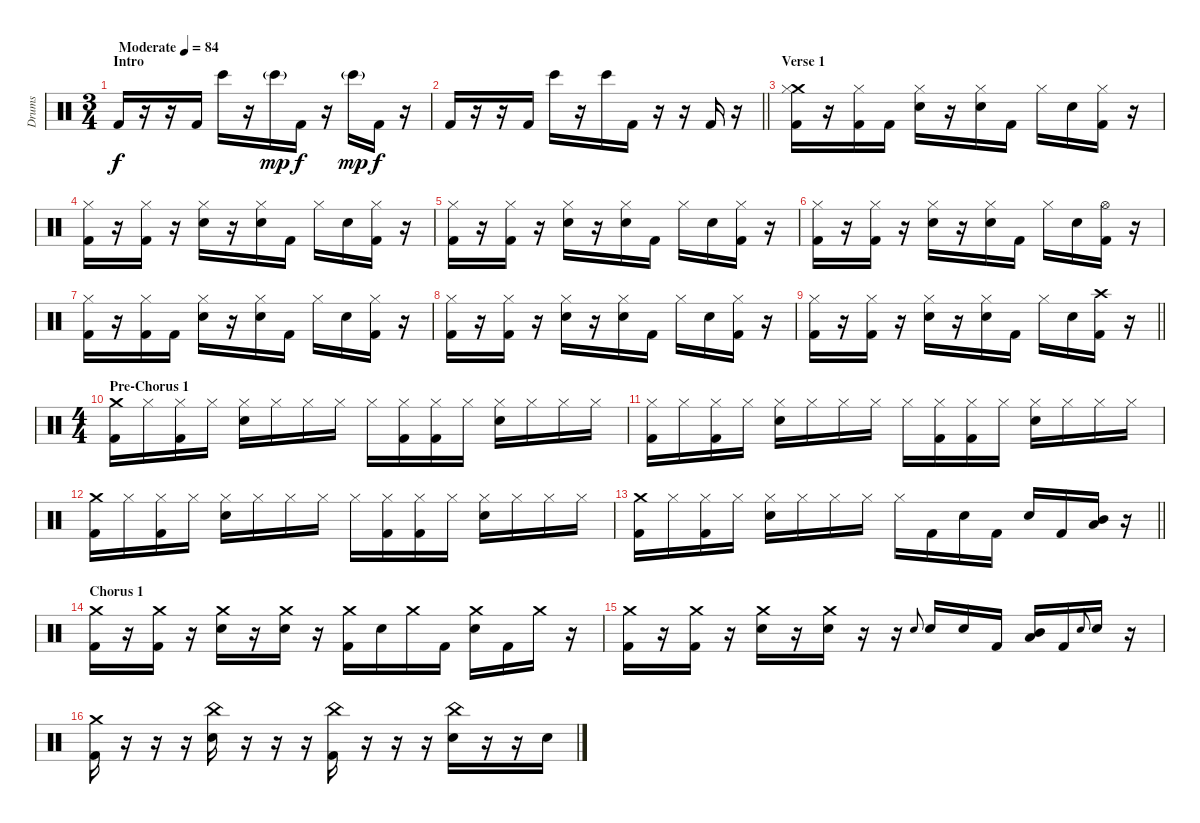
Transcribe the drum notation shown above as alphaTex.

\track ("Drums" "Drums") {instrument percussion}
\staff {score}
\articulation defaults
\ts (3 4)
\section ("" "Intro")
\tempo (84 "Moderate")
\clef neutral
\ks c "Kick (hit) 2".16{dy f}
r.16 r.16 "Kick (hit) 2".16 "Bongo High (hit)".16 r.16 "Bongo High (hit)"{g}.16{dy mp} "Kick (hit) 2".16{dy f} r.16 "Bongo High (hit)"{g}.16{dy mp} "Kick (hit) 2".16{dy f} r.16 |
\barLineRight lightlight "Kick (hit) 2".16
r.16 r.16 "Kick (hit) 2".16 "Bongo High (hit)".16 r.16 "Bongo High (hit)".16 "Kick (hit) 2".16 r.16 r.16 "Kick (hit) 2".16 r.16 |
\section ("" "Verse 1")
("Crash medium (hit)" "Hi-Hat (closed)" "Kick (hit) 2").16 r.16 ("Hi-Hat (closed)" "Kick (hit) 2").16 "Kick (hit) 2".16 ("Hi-Hat (closed)" "Electric Snare (hit)").16 r.16 ("Hi-Hat (closed)" "Electric Snare (hit)").16 "Kick (hit) 2".16 "Hi-Hat (closed)".16 "Electric Snare (hit)".16 ("Hi-Hat (closed)" "Kick (hit) 2").16 r.16 |
("Hi-Hat (closed)" "Kick (hit) 2").16 r.16 ("Hi-Hat (closed)" "Kick (hit) 2").16 r.16 ("Hi-Hat (closed)" "Electric Snare (hit)").16 r.16 ("Hi-Hat (closed)" "Electric Snare (hit)").16 "Kick (hit) 2".16 "Hi-Hat (closed)".16 "Electric Snare (hit)".16 ("Hi-Hat (closed)" "Kick (hit) 2").16 r.16 |
("Hi-Hat (closed)" "Kick (hit) 2").16 r.16 ("Hi-Hat (closed)" "Kick (hit) 2").16 r.16 ("Hi-Hat (closed)" "Electric Snare (hit)").16 r.16 ("Hi-Hat (closed)" "Electric Snare (hit)").16 "Kick (hit) 2".16 "Hi-Hat (closed)".16 "Electric Snare (hit)".16 ("Hi-Hat (closed)" "Kick (hit) 2").16 r.16 |
("Hi-Hat (closed)" "Kick (hit) 2").16 r.16 ("Hi-Hat (closed)" "Kick (hit) 2").16 r.16 ("Hi-Hat (closed)" "Electric Snare (hit)").16 r.16 ("Hi-Hat (closed)" "Electric Snare (hit)").16 "Kick (hit) 2".16 "Hi-Hat (closed)".16 "Electric Snare (hit)".16 ("Hi-Hat (open)" "Kick (hit) 2").16 r.16 |
("Hi-Hat (closed)" "Kick (hit) 2").16 r.16 ("Hi-Hat (closed)" "Kick (hit) 2").16 "Kick (hit) 2".16 ("Hi-Hat (closed)" "Electric Snare (hit)").16 r.16 ("Hi-Hat (closed)" "Electric Snare (hit)").16 "Kick (hit) 2".16 "Hi-Hat (closed)".16 "Electric Snare (hit)".16 ("Hi-Hat (closed)" "Kick (hit) 2").16 r.16 |
("Hi-Hat (closed)" "Kick (hit) 2").16 r.16 ("Hi-Hat (closed)" "Kick (hit) 2").16 r.16 ("Hi-Hat (closed)" "Electric Snare (hit)").16 r.16 ("Hi-Hat (closed)" "Electric Snare (hit)").16 "Kick (hit) 2".16 "Hi-Hat (closed)".16 "Electric Snare (hit)".16 ("Hi-Hat (closed)" "Kick (hit) 2").16 r.16 |
\barLineRight lightlight
("Hi-Hat (closed)" "Kick (hit) 2").16 r.16 ("Hi-Hat (closed)" "Kick (hit) 2").16 r.16 ("Hi-Hat (closed)" "Electric Snare (hit)").16 r.16 ("Hi-Hat (closed)" "Electric Snare (hit)").16 "Kick (hit) 2".16 "Hi-Hat (closed)".16 "Electric Snare (hit)".16 ("Crash high (hit)" "Kick (hit) 2").16 r.16 |
\ts (4 4)
\section ("" "Pre-Chorus 1")
("Crash medium (hit)" "Kick (hit) 2").16 "Hi-Hat (closed)".16 ("Hi-Hat (closed)" "Kick (hit) 2").16 "Hi-Hat (closed)".16 ("Hi-Hat (closed)" "Electric Snare (hit)").16 "Hi-Hat (closed)".16 "Hi-Hat (closed)".16 "Hi-Hat (closed)".16 "Hi-Hat (closed)".16 ("Hi-Hat (closed)" "Kick (hit) 2").16 ("Hi-Hat (closed)" "Kick (hit) 2").16 "Hi-Hat (closed)".16 ("Hi-Hat (closed)" "Electric Snare (hit)").16 "Hi-Hat (closed)".16 "Hi-Hat (closed)".16 "Hi-Hat (closed)".16 |
("Hi-Hat (closed)" "Kick (hit) 2").16 "Hi-Hat (closed)".16 ("Hi-Hat (closed)" "Kick (hit) 2").16 "Hi-Hat (closed)".16 ("Hi-Hat (closed)" "Electric Snare (hit)").16 "Hi-Hat (closed)".16 "Hi-Hat (closed)".16 "Hi-Hat (closed)".16 "Hi-Hat (closed)".16 ("Hi-Hat (closed)" "Kick (hit) 2").16 ("Hi-Hat (closed)" "Kick (hit) 2").16 "Hi-Hat (closed)".16 ("Hi-Hat (closed)" "Electric Snare (hit)").16 "Hi-Hat (closed)".16 "Hi-Hat (closed)".16 "Hi-Hat (closed)".16 |
("Crash medium (hit)" "Kick (hit) 2").16 "Hi-Hat (closed)".16 ("Hi-Hat (closed)" "Kick (hit) 2").16 "Hi-Hat (closed)".16 ("Hi-Hat (closed)" "Electric Snare (hit)").16 "Hi-Hat (closed)".16 "Hi-Hat (closed)".16 "Hi-Hat (closed)".16 "Hi-Hat (closed)".16 ("Hi-Hat (closed)" "Kick (hit) 2").16 ("Hi-Hat (closed)" "Kick (hit) 2").16 "Hi-Hat (closed)".16 ("Hi-Hat (closed)" "Electric Snare (hit)").16 "Hi-Hat (closed)".16 "Hi-Hat (closed)".16 "Hi-Hat (closed)".16 |
\barLineRight lightlight
("Crash medium (hit)" "Kick (hit) 2").16 "Hi-Hat (closed)".16 ("Hi-Hat (closed)" "Kick (hit) 2").16 "Hi-Hat (closed)".16 ("Hi-Hat (closed)" "Electric Snare (hit)").16 "Hi-Hat (closed)".16 "Hi-Hat (closed)".16 "Hi-Hat (closed)".16 "Hi-Hat (closed)".16 "Kick (hit) 2".16 "Electric Snare (hit)".16 "Kick (hit) 2".16 "Electric Snare (hit)".16 "Kick (hit) 2".16 ("Mid Tom (hit)" "Low Tom (hit)").16 r.16 |
\section ("" "Chorus 1")
("Crash medium (hit)" "Kick (hit) 2").16 r.16 ("Crash medium (hit)" "Kick (hit) 2").16 r.16 ("Crash medium (hit)" "Electric Snare (hit)").16 r.16 ("Crash medium (hit)" "Electric Snare (hit)").16 r.16 ("Crash medium (hit)" "Kick (hit) 2").16 "Electric Snare (hit)".16 "Crash medium (hit)".16 "Kick (hit) 2".16 ("Crash medium (hit)" "Electric Snare (hit)").16 "Kick (hit) 2".16 "Crash medium (hit)".16 r.16 |
("Crash medium (hit)" "Kick (hit) 2").16 r.16 ("Crash medium (hit)" "Kick (hit) 2").16 r.16 ("Crash medium (hit)" "Electric Snare (hit)").16 r.16 ("Crash medium (hit)" "Electric Snare (hit)").16 r.16 r.16 "Electric Snare (hit)".8{gr onbeat} "Electric Snare (hit)".16 "Electric Snare (hit)".16 "Kick (hit) 2".16 ("Mid Tom (hit)" "Low Tom (hit)").16 "Kick (hit) 2".16 "Electric Snare (hit)".8{gr onbeat} "Electric Snare (hit)".16 r.16 |
("Crash medium (hit)" "Kick (hit) 2").16 r.16 r.16 r.16 ("China (hit)" "Electric Snare (hit)").16 r.16 r.16 r.16 ("China (hit)" "Kick (hit) 2").16 r.16 r.16 r.16 ("China (hit)" "Electric Snare (hit)").16 r.16 r.16 "Electric Snare (hit)".16
